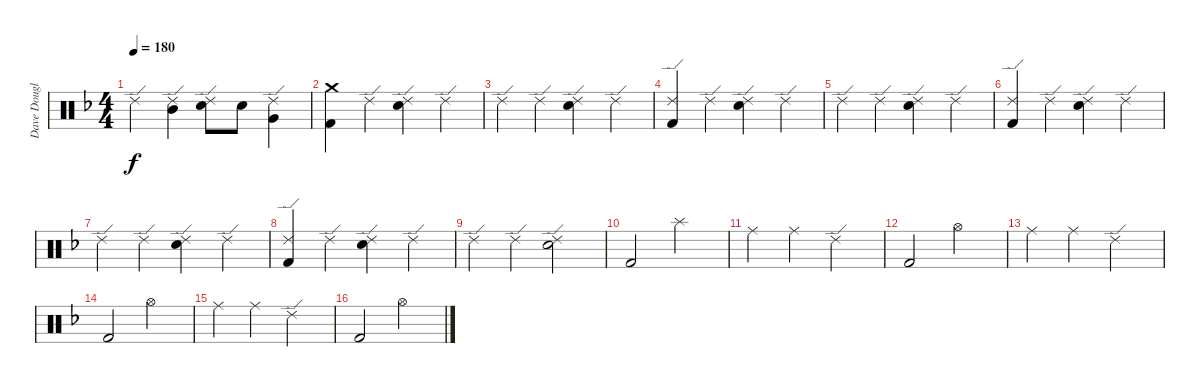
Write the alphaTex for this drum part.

\track ("Dave Douglas (Drum)" "Dave Dougl") {instrument percussion}
\staff {score}
\articulation defaults
\ts (4 4)
\tempo 180
\clef neutral
\ks dminor "Ride (edge) 2".4{dy f}
("Ride (edge) 2" "Mid Tom (hit)").4 ("Ride (edge) 2" "Snare (hit) 2").8 "Snare (hit) 2".8 ("Ride (edge) 2" "Very Low Tom (hit)").4 |
("Crash medium (hit)" "Kick (hit) 2").4 "Ride (edge) 2".4 ("Ride (edge) 2" "Snare (hit) 2").4 "Ride (edge) 2".4 |
"Ride (edge) 2".4 "Ride (edge) 2".4 ("Ride (edge) 2" "Snare (hit) 2").4 "Ride (edge) 2".4 |
("Ride (edge) 2" "Kick (hit) 2").4 "Ride (edge) 2".4 ("Ride (edge) 2" "Snare (hit) 2").4 "Ride (edge) 2".4 |
"Ride (edge) 2".4 "Ride (edge) 2".4 ("Ride (edge) 2" "Snare (hit) 2").4 "Ride (edge) 2".4 |
("Ride (edge) 2" "Kick (hit) 2").4 "Ride (edge) 2".4 ("Ride (edge) 2" "Snare (hit) 2").4 "Ride (edge) 2".4 |
"Ride (edge) 2".4 "Ride (edge) 2".4 ("Ride (edge) 2" "Snare (hit) 2").4 "Ride (edge) 2".4 |
("Ride (edge) 2" "Kick (hit) 2").4 "Ride (edge) 2".4 ("Ride (edge) 2" "Snare (hit) 2").4 "Ride (edge) 2".4 |
"Ride (edge) 2".4 "Ride (edge) 2".4 ("Ride (edge) 2" "Snare (hit) 2").2 |
"Kick (hit) 2".2 "Splash (hit)".2 |
"Ride (middle)".4 "Ride (middle)".4 "Ride (edge) 2".2 |
"Kick (hit) 2".2 "Hi-Hat (open)".2 |
"Ride (middle)".4 "Ride (middle)".4 "Ride (edge) 2".2 |
"Kick (hit) 2".2 "Hi-Hat (open)".2 |
"Ride (middle)".4 "Ride (middle)".4 "Ride (edge) 2".2 |
"Kick (hit) 2".2 "Hi-Hat (open)".2
